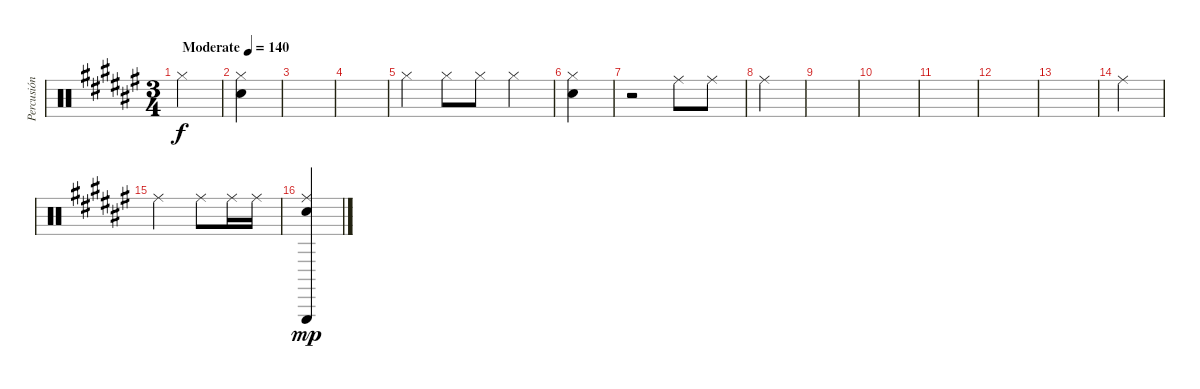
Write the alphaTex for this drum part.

\track ("Percusión" "Percusión") {instrument percussion}
\staff {score}
\articulation defaults
\ts (3 4)
\tempo (140 "Moderate")
\clef neutral
\ks f# "Hi-Hat (closed)".4{dy f}
|
("Hi-Hat (closed)" "Metronome (bell)").4 |
|
|
"Hi-Hat (closed)".4 "Hi-Hat (closed)".8 "Hi-Hat (closed)".8 "Hi-Hat (closed)".4 |
("Hi-Hat (closed)" "Metronome (bell)").4 |
r.2 "Ride (middle)".8 "Ride (middle)".8 |
"Ride (middle)".4 |
|
|
|
|
|
"Ride (middle)".4 |
"Ride (middle)".2 "Ride (middle)".8 "Ride (middle)".16 "Ride (middle)".16 |
("Triangle (hit)" "Metronome (bell)" "Ride (middle)").4{dy mp}
